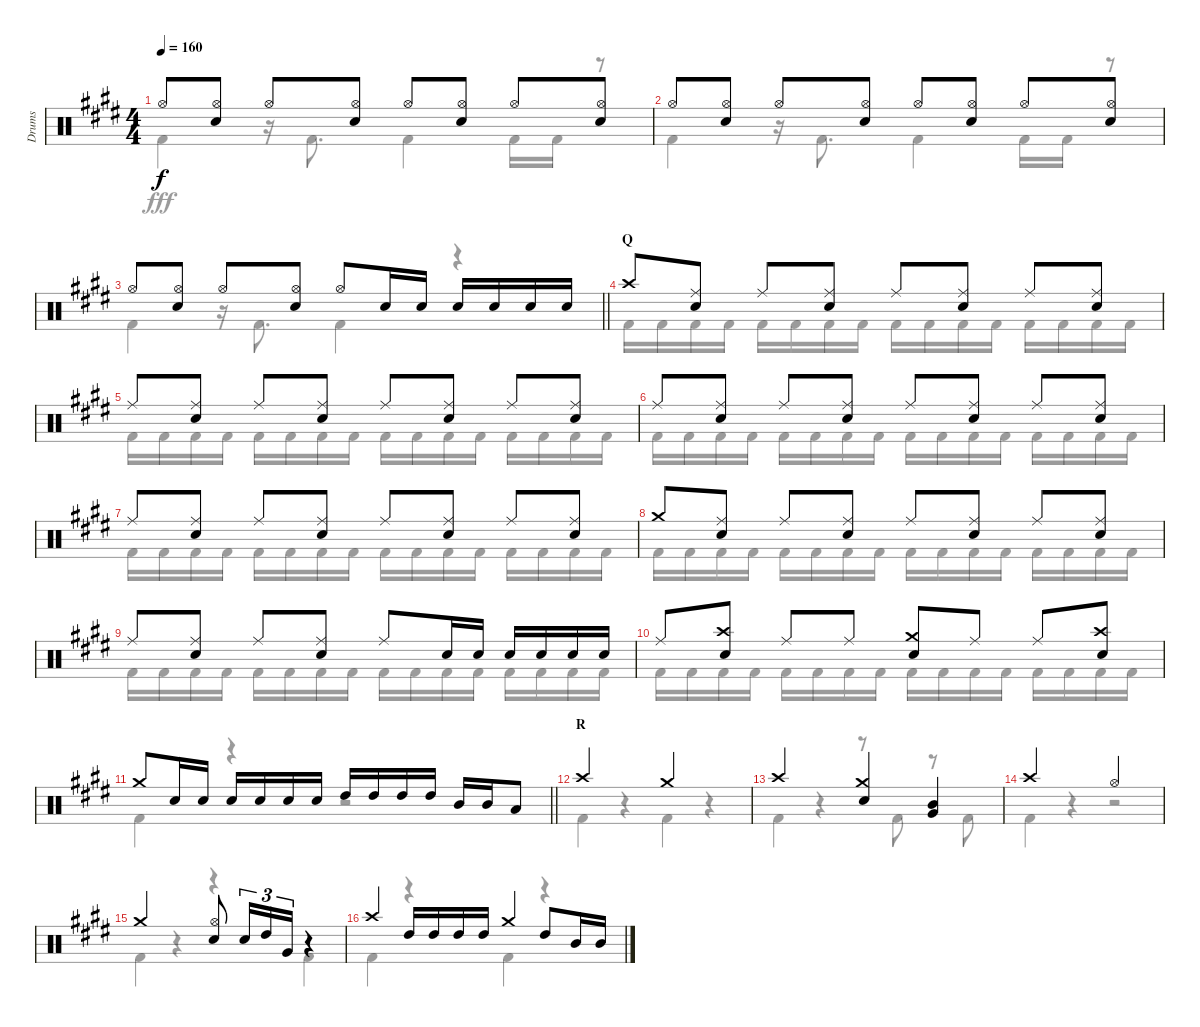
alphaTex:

\track ("Drums" "Drums") {instrument percussion}
\staff {score}
\articulation defaults
\voice
\ts (4 4)
\tempo 160
\clef neutral
\ks e "Hi-Hat (open)".8{dy f}
("Hi-Hat (open)" "Snare (hit) 2").8 "Hi-Hat (open)".8 ("Hi-Hat (open)" "Snare (hit) 2").8 "Hi-Hat (open)".8 ("Hi-Hat (open)" "Snare (hit) 2").8 "Hi-Hat (open)".8 ("Hi-Hat (open)" "Snare (hit) 2").8 |
"Hi-Hat (open)".8 ("Hi-Hat (open)" "Snare (hit) 2").8 "Hi-Hat (open)".8 ("Hi-Hat (open)" "Snare (hit) 2").8 "Hi-Hat (open)".8 ("Hi-Hat (open)" "Snare (hit) 2").8 "Hi-Hat (open)".8 ("Hi-Hat (open)" "Snare (hit) 2").8 |
\barLineRight lightlight "Hi-Hat (open)".8
("Hi-Hat (open)" "Snare (hit) 2").8 "Hi-Hat (open)".8 ("Hi-Hat (open)" "Snare (hit) 2").8 "Hi-Hat (open)".8 "Snare (hit) 2".16 "Snare (hit) 2".16 "Snare (hit) 2".16 "Snare (hit) 2".16 "Snare (hit) 2".16 "Snare (hit) 2".16 |
\section ("" "Q")
"Crash high (hit)".8 ("Ride (middle)" "Snare (hit) 2").8 "Ride (middle)".8 ("Ride (middle)" "Snare (hit) 2").8 "Ride (middle)".8 ("Ride (middle)" "Snare (hit) 2").8 "Ride (middle)".8 ("Ride (middle)" "Snare (hit) 2").8 |
"Ride (middle)".8 ("Ride (middle)" "Snare (hit) 2").8 "Ride (middle)".8 ("Ride (middle)" "Snare (hit) 2").8 "Ride (middle)".8 ("Ride (middle)" "Snare (hit) 2").8 "Ride (middle)".8 ("Ride (middle)" "Snare (hit) 2").8 |
"Ride (middle)".8 ("Ride (middle)" "Snare (hit) 2").8 "Ride (middle)".8 ("Ride (middle)" "Snare (hit) 2").8 "Ride (middle)".8 ("Ride (middle)" "Snare (hit) 2").8 "Ride (middle)".8 ("Ride (middle)" "Snare (hit) 2").8 |
"Ride (middle)".8 ("Ride (middle)" "Snare (hit) 2").8 "Ride (middle)".8 ("Ride (middle)" "Snare (hit) 2").8 "Ride (middle)".8 ("Ride (middle)" "Snare (hit) 2").8 "Ride (middle)".8 ("Ride (middle)" "Snare (hit) 2").8 |
"Crash medium (hit)".8 ("Ride (middle)" "Snare (hit) 2").8 "Ride (middle)".8 ("Ride (middle)" "Snare (hit) 2").8 "Ride (middle)".8 ("Ride (middle)" "Snare (hit) 2").8 "Ride (middle)".8 ("Ride (middle)" "Snare (hit) 2").8 |
"Ride (middle)".8 ("Ride (middle)" "Snare (hit) 2").8 "Ride (middle)".8 ("Ride (middle)" "Snare (hit) 2").8 "Ride (middle)".8 "Snare (hit) 2".16 "Snare (hit) 2".16 "Snare (hit) 2".16 "Snare (hit) 2".16 "Snare (hit) 2".16 "Snare (hit) 2".16 |
"Ride (middle)".8 ("Crash high (hit)" "Snare (hit) 2").8 "Ride (middle)".8 "Ride (middle)".8 ("Crash medium (hit)" "Snare (hit) 2").8 "Ride (middle)".8 "Ride (middle)".8 ("Crash high (hit)" "Snare (hit) 2").8 |
\barLineRight lightlight "Crash medium (hit)".8 "Snare (hit) 2".16 "Snare (hit) 2".16 "Snare (hit) 2".16 "Snare (hit) 2".16 "Snare (hit) 2".16 "Snare (hit) 2".16 "High Tom (hit)".16 "High Tom (hit)".16 "High Tom (hit)".16 "High Tom (hit)".16 "Mid Tom (hit)".16 "Mid Tom (hit)".16 "Low Tom (hit)".8
|
\section ("" "R")
"Crash high (hit)".2 "Crash medium (hit)".2 |
"Crash high (hit)".2 ("Crash medium (hit)" "Snare (hit) 2").4 ("Mid Tom (hit)" "Very Low Tom (hit)").4 |
"Crash high (hit)".2 "Hi-Hat (open)".2 |
"Crash medium (hit)".2 ("Hi-Hat (open)" "Snare (hit) 2").8 "Snare (hit) 2".16{tu (3 2)} "High Tom (hit)".16{tu (3 2)} "Very Low Tom (hit)".16{tu (3 2)} r.4 |
"Crash high (hit)".4 "High Tom (hit)".16 "High Tom (hit)".16 "High Tom (hit)".16 "High Tom (hit)".16 "Crash medium (hit)".4 "High Tom (hit)".8 "Mid Tom (hit)".16 "Mid Tom (hit)".16
\voice
\clef neutral
\ottava regular
\simile none
\ks e "Kick (hit) 2".4{dy fff}
r.16 "Kick (hit) 2".8{d} "Kick (hit) 2".4 "Kick (hit) 2".16 "Kick (hit) 2".16 r.8 |
"Kick (hit) 2".4 r.16 "Kick (hit) 2".8{d} "Kick (hit) 2".4 "Kick (hit) 2".16 "Kick (hit) 2".16 r.8 |
\barLineRight lightlight "Kick (hit) 2".4
r.16 "Kick (hit) 2".8{d} "Kick (hit) 2".4 r.4 |
"Kick (hit) 2".16 "Kick (hit) 2".16 "Kick (hit) 2".16 "Kick (hit) 2".16 "Kick (hit) 2".16 "Kick (hit) 2".16 "Kick (hit) 2".16 "Kick (hit) 2".16 "Kick (hit) 2".16 "Kick (hit) 2".16 "Kick (hit) 2".16 "Kick (hit) 2".16 "Kick (hit) 2".16 "Kick (hit) 2".16 "Kick (hit) 2".16 "Kick (hit) 2".16 |
"Kick (hit) 2".16 "Kick (hit) 2".16 "Kick (hit) 2".16 "Kick (hit) 2".16 "Kick (hit) 2".16 "Kick (hit) 2".16 "Kick (hit) 2".16 "Kick (hit) 2".16 "Kick (hit) 2".16 "Kick (hit) 2".16 "Kick (hit) 2".16 "Kick (hit) 2".16 "Kick (hit) 2".16 "Kick (hit) 2".16 "Kick (hit) 2".16 "Kick (hit) 2".16 |
"Kick (hit) 2".16 "Kick (hit) 2".16 "Kick (hit) 2".16 "Kick (hit) 2".16 "Kick (hit) 2".16 "Kick (hit) 2".16 "Kick (hit) 2".16 "Kick (hit) 2".16 "Kick (hit) 2".16 "Kick (hit) 2".16 "Kick (hit) 2".16 "Kick (hit) 2".16 "Kick (hit) 2".16 "Kick (hit) 2".16 "Kick (hit) 2".16 "Kick (hit) 2".16 |
"Kick (hit) 2".16 "Kick (hit) 2".16 "Kick (hit) 2".16 "Kick (hit) 2".16 "Kick (hit) 2".16 "Kick (hit) 2".16 "Kick (hit) 2".16 "Kick (hit) 2".16 "Kick (hit) 2".16 "Kick (hit) 2".16 "Kick (hit) 2".16 "Kick (hit) 2".16 "Kick (hit) 2".16 "Kick (hit) 2".16 "Kick (hit) 2".16 "Kick (hit) 2".16 |
"Kick (hit) 2".16 "Kick (hit) 2".16 "Kick (hit) 2".16 "Kick (hit) 2".16 "Kick (hit) 2".16 "Kick (hit) 2".16 "Kick (hit) 2".16 "Kick (hit) 2".16 "Kick (hit) 2".16 "Kick (hit) 2".16 "Kick (hit) 2".16 "Kick (hit) 2".16 "Kick (hit) 2".16 "Kick (hit) 2".16 "Kick (hit) 2".16 "Kick (hit) 2".16 |
"Kick (hit) 2".16 "Kick (hit) 2".16 "Kick (hit) 2".16 "Kick (hit) 2".16 "Kick (hit) 2".16 "Kick (hit) 2".16 "Kick (hit) 2".16 "Kick (hit) 2".16 "Kick (hit) 2".16 "Kick (hit) 2".16 "Kick (hit) 2".16 "Kick (hit) 2".16 "Kick (hit) 2".16 "Kick (hit) 2".16 "Kick (hit) 2".16 "Kick (hit) 2".16 |
"Kick (hit) 2".16 "Kick (hit) 2".16 "Kick (hit) 2".16 "Kick (hit) 2".16 "Kick (hit) 2".16 "Kick (hit) 2".16 "Kick (hit) 2".16 "Kick (hit) 2".16 "Kick (hit) 2".16 "Kick (hit) 2".16 "Kick (hit) 2".16 "Kick (hit) 2".16 "Kick (hit) 2".16 "Kick (hit) 2".16 "Kick (hit) 2".16 "Kick (hit) 2".16 |
\barLineRight lightlight "Kick (hit) 2".4
r.4 r.2 |
"Kick (hit) 2".4 r.4 "Kick (hit) 2".4 r.4 |
"Kick (hit) 2".4 r.4 r.8 "Kick (hit) 2".8 r.8 "Kick (hit) 2".8 |
"Kick (hit) 2".4 r.4 r.2 |
"Kick (hit) 2".4 r.4 r.4 "Kick (hit) 2".4 |
"Kick (hit) 2".4 r.4 "Kick (hit) 2".4 r.4
